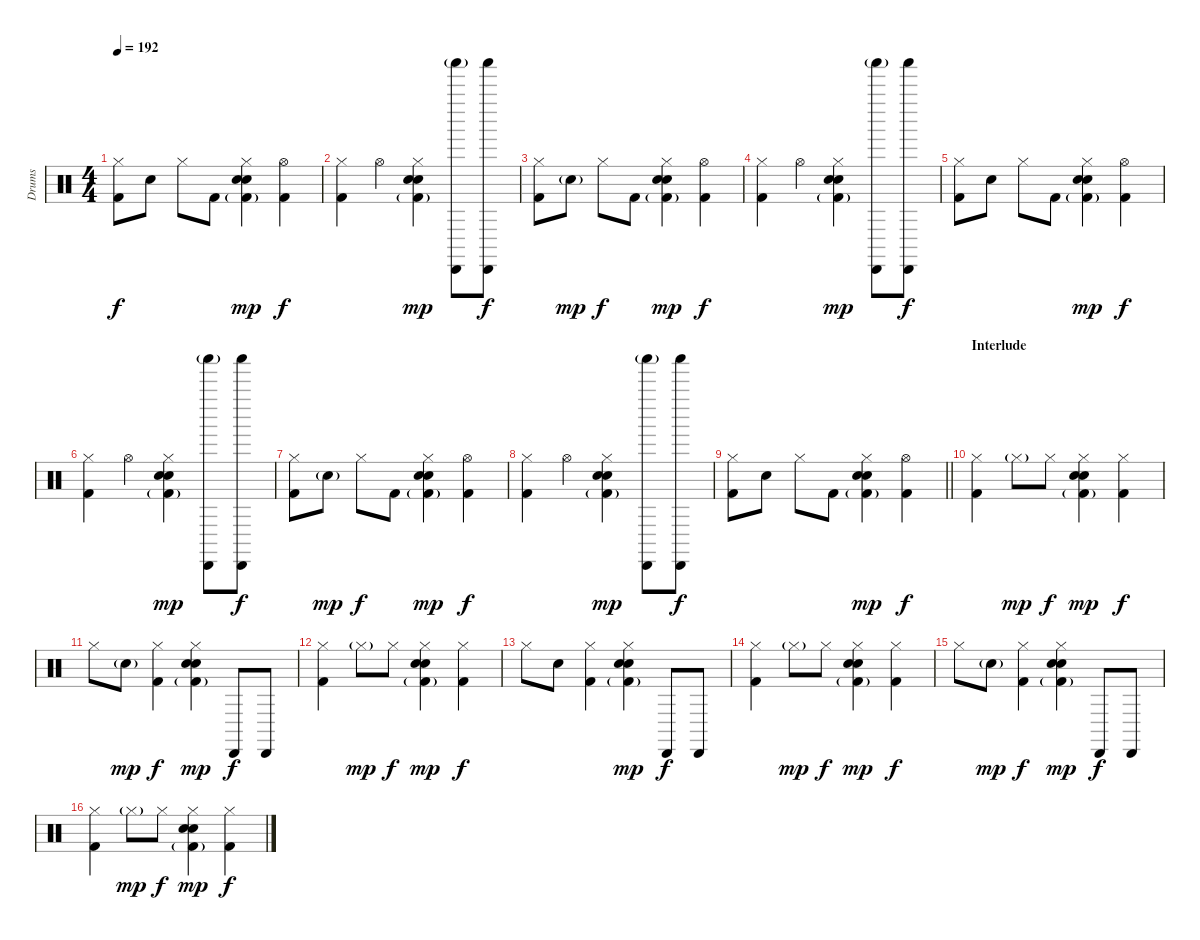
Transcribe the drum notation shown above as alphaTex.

\track ("Drums" "Drums") {instrument percussion}
\staff {score}
\articulation defaults
\ts (4 4)
\tempo 192
\clef neutral
\ks c
("Hi-Hat (closed)" "Kick (hit) 2").8{dy f} "Electric Snare (hit)".8 "Hi-Hat (closed)".8 "Kick (hit) 2".8 ("Hi-Hat (closed)" "Hand Clap (hit)" "Electric Snare (hit)" "Kick (hit) 2"{g}).4{dy mp} ("Hi-Hat (open)" "Kick (hit) 2").4{dy f} |
("Hi-Hat (closed)" "Kick (hit) 2").4 "Hi-Hat (open)".4 ("Hi-Hat (closed)" "Hand Clap (hit)" "Electric Snare (hit)" "Kick (hit) 2"{g}).4{dy mp} ("Shaker (hit)"{g} "Cabasa (hit)").8 ("Shaker (hit)" "Cabasa (hit)").8{dy f} |
("Hi-Hat (closed)" "Kick (hit) 2").8 "Electric Snare (hit)"{g}.8{dy mp} "Hi-Hat (closed)".8{dy f} "Kick (hit) 2".8 ("Hi-Hat (closed)" "Hand Clap (hit)" "Electric Snare (hit)" "Kick (hit) 2"{g}).4{dy mp} ("Hi-Hat (open)" "Kick (hit) 2").4{dy f} |
("Hi-Hat (closed)" "Kick (hit) 2").4 "Hi-Hat (open)".4 ("Hi-Hat (closed)" "Hand Clap (hit)" "Electric Snare (hit)" "Kick (hit) 2"{g}).4{dy mp} ("Shaker (hit)"{g} "Cabasa (hit)").8 ("Shaker (hit)" "Cabasa (hit)").8{dy f} |
("Hi-Hat (closed)" "Kick (hit) 2").8 "Electric Snare (hit)".8 "Hi-Hat (closed)".8 "Kick (hit) 2".8 ("Hi-Hat (closed)" "Hand Clap (hit)" "Electric Snare (hit)" "Kick (hit) 2"{g}).4{dy mp} ("Hi-Hat (open)" "Kick (hit) 2").4{dy f} |
("Hi-Hat (closed)" "Kick (hit) 2").4 "Hi-Hat (open)".4 ("Hi-Hat (closed)" "Hand Clap (hit)" "Electric Snare (hit)" "Kick (hit) 2"{g}).4{dy mp} ("Shaker (hit)"{g} "Cabasa (hit)").8 ("Shaker (hit)" "Cabasa (hit)").8{dy f} |
("Hi-Hat (closed)" "Kick (hit) 2").8 "Electric Snare (hit)"{g}.8{dy mp} "Hi-Hat (closed)".8{dy f} "Kick (hit) 2".8 ("Hi-Hat (closed)" "Hand Clap (hit)" "Electric Snare (hit)" "Kick (hit) 2"{g}).4{dy mp} ("Hi-Hat (open)" "Kick (hit) 2").4{dy f} |
("Hi-Hat (closed)" "Kick (hit) 2").4 "Hi-Hat (open)".4 ("Hi-Hat (closed)" "Hand Clap (hit)" "Electric Snare (hit)" "Kick (hit) 2"{g}).4{dy mp} ("Shaker (hit)"{g} "Cabasa (hit)").8 ("Shaker (hit)" "Cabasa (hit)").8{dy f} |
\barLineRight lightlight
("Hi-Hat (closed)" "Kick (hit) 2").8 "Electric Snare (hit)".8 "Hi-Hat (closed)".8 "Kick (hit) 2".8 ("Hi-Hat (closed)" "Hand Clap (hit)" "Electric Snare (hit)" "Kick (hit) 2"{g}).4{dy mp} ("Hi-Hat (open)" "Kick (hit) 2").4{dy f} |
\section ("" "Interlude")
("Hi-Hat (closed)" "Kick (hit) 2").4 "Hi-Hat (closed)"{g}.8{dy mp} "Hi-Hat (closed)".8{dy f} ("Hi-Hat (closed)" "Hand Clap (hit)" "Electric Snare (hit)" "Kick (hit) 2"{g}).4{dy mp} ("Hi-Hat (closed)" "Kick (hit) 2").4{dy f} |
"Hi-Hat (closed)".8 "Electric Snare (hit)"{g}.8{dy mp} ("Hi-Hat (closed)" "Kick (hit) 2").4{dy f} ("Hi-Hat (closed)" "Hand Clap (hit)" "Electric Snare (hit)" "Kick (hit) 2"{g}).4{dy mp} "Cabasa (hit)".8{dy f} "Cabasa (hit)".8 |
("Hi-Hat (closed)" "Kick (hit) 2").4 "Hi-Hat (closed)"{g}.8{dy mp} "Hi-Hat (closed)".8{dy f} ("Hi-Hat (closed)" "Hand Clap (hit)" "Electric Snare (hit)" "Kick (hit) 2"{g}).4{dy mp} ("Hi-Hat (closed)" "Kick (hit) 2").4{dy f} |
"Hi-Hat (closed)".8 "Electric Snare (hit)".8 ("Hi-Hat (closed)" "Kick (hit) 2").4 ("Hi-Hat (closed)" "Hand Clap (hit)" "Electric Snare (hit)" "Kick (hit) 2"{g}).4{dy mp} "Cabasa (hit)".8{dy f} "Cabasa (hit)".8 |
("Hi-Hat (closed)" "Kick (hit) 2").4 "Hi-Hat (closed)"{g}.8{dy mp} "Hi-Hat (closed)".8{dy f} ("Hi-Hat (closed)" "Hand Clap (hit)" "Electric Snare (hit)" "Kick (hit) 2"{g}).4{dy mp} ("Hi-Hat (closed)" "Kick (hit) 2").4{dy f} |
"Hi-Hat (closed)".8 "Electric Snare (hit)"{g}.8{dy mp} ("Hi-Hat (closed)" "Kick (hit) 2").4{dy f} ("Hi-Hat (closed)" "Hand Clap (hit)" "Electric Snare (hit)" "Kick (hit) 2"{g}).4{dy mp} "Cabasa (hit)".8{dy f} "Cabasa (hit)".8 |
("Hi-Hat (closed)" "Kick (hit) 2").4 "Hi-Hat (closed)"{g}.8{dy mp} "Hi-Hat (closed)".8{dy f} ("Hi-Hat (closed)" "Hand Clap (hit)" "Electric Snare (hit)" "Kick (hit) 2"{g}).4{dy mp} ("Hi-Hat (closed)" "Kick (hit) 2").4{dy f}
